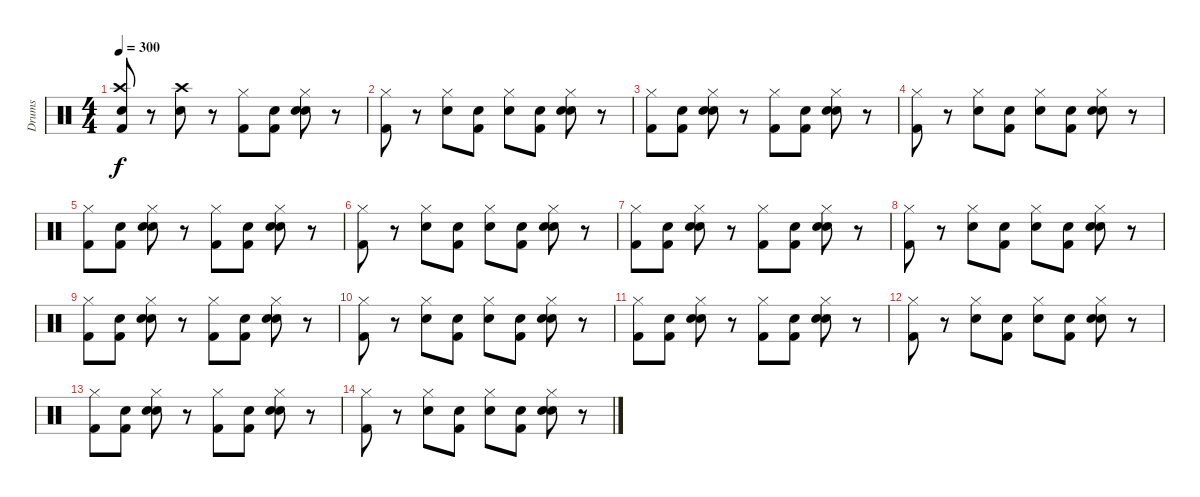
\track ("Drums" "Drums") {instrument percussion}
\staff {score}
\articulation defaults
\ts (4 4)
\tempo 300
\clef neutral
\ks c
("Snare (hit)" "Crash high (hit)" "Kick (hit) 2").8{dy f} r.8 ("Crash high (hit)" "Electric Snare (hit)").8 r.8 ("Hi-Hat (closed)" "Kick (hit) 2").8 ("Snare (hit)" "Kick (hit) 2").8 ("Snare (hit)" "Hi-Hat (closed)" "Electric Snare (hit)").8 r.8 |
("Kick (hit) 2" "Hi-Hat (closed)").8 r.8 ("Electric Snare (hit)" "Hi-Hat (closed)").8 ("Snare (hit)" "Kick (hit) 2").8 ("Snare (hit)" "Hi-Hat (closed)").8 ("Snare (hit)" "Kick (hit) 2").8 ("Snare (hit)" "Electric Snare (hit)" "Hi-Hat (closed)").8 r.8 |
("Hi-Hat (closed)" "Kick (hit) 2").8 ("Snare (hit)" "Kick (hit) 2").8 ("Snare (hit)" "Hi-Hat (closed)" "Electric Snare (hit)").8 r.8 ("Hi-Hat (closed)" "Kick (hit) 2").8 ("Snare (hit)" "Kick (hit) 2").8 ("Snare (hit)" "Hi-Hat (closed)" "Electric Snare (hit)").8 r.8 |
("Kick (hit) 2" "Hi-Hat (closed)").8 r.8 ("Electric Snare (hit)" "Hi-Hat (closed)").8 ("Snare (hit)" "Kick (hit) 2").8 ("Snare (hit)" "Hi-Hat (closed)").8 ("Snare (hit)" "Kick (hit) 2").8 ("Snare (hit)" "Electric Snare (hit)" "Hi-Hat (closed)").8 r.8 |
("Hi-Hat (closed)" "Kick (hit) 2").8 ("Snare (hit)" "Kick (hit) 2").8 ("Snare (hit)" "Hi-Hat (closed)" "Electric Snare (hit)").8 r.8 ("Hi-Hat (closed)" "Kick (hit) 2").8 ("Snare (hit)" "Kick (hit) 2").8 ("Snare (hit)" "Hi-Hat (closed)" "Electric Snare (hit)").8 r.8 |
("Kick (hit) 2" "Hi-Hat (closed)").8 r.8 ("Electric Snare (hit)" "Hi-Hat (closed)").8 ("Snare (hit)" "Kick (hit) 2").8 ("Snare (hit)" "Hi-Hat (closed)").8 ("Snare (hit)" "Kick (hit) 2").8 ("Snare (hit)" "Electric Snare (hit)" "Hi-Hat (closed)").8 r.8 |
("Hi-Hat (closed)" "Kick (hit) 2").8 ("Snare (hit)" "Kick (hit) 2").8 ("Snare (hit)" "Hi-Hat (closed)" "Electric Snare (hit)").8 r.8 ("Hi-Hat (closed)" "Kick (hit) 2").8 ("Snare (hit)" "Kick (hit) 2").8 ("Snare (hit)" "Hi-Hat (closed)" "Electric Snare (hit)").8 r.8 |
("Kick (hit) 2" "Hi-Hat (closed)").8 r.8 ("Electric Snare (hit)" "Hi-Hat (closed)").8 ("Snare (hit)" "Kick (hit) 2").8 ("Snare (hit)" "Hi-Hat (closed)").8 ("Snare (hit)" "Kick (hit) 2").8 ("Snare (hit)" "Electric Snare (hit)" "Hi-Hat (closed)").8 r.8 |
("Hi-Hat (closed)" "Kick (hit) 2").8 ("Snare (hit)" "Kick (hit) 2").8 ("Snare (hit)" "Hi-Hat (closed)" "Electric Snare (hit)").8 r.8 ("Hi-Hat (closed)" "Kick (hit) 2").8 ("Snare (hit)" "Kick (hit) 2").8 ("Snare (hit)" "Hi-Hat (closed)" "Electric Snare (hit)").8 r.8 |
("Kick (hit) 2" "Hi-Hat (closed)").8 r.8 ("Electric Snare (hit)" "Hi-Hat (closed)").8 ("Snare (hit)" "Kick (hit) 2").8 ("Snare (hit)" "Hi-Hat (closed)").8 ("Snare (hit)" "Kick (hit) 2").8 ("Snare (hit)" "Electric Snare (hit)" "Hi-Hat (closed)").8 r.8 |
("Hi-Hat (closed)" "Kick (hit) 2").8 ("Snare (hit)" "Kick (hit) 2").8 ("Snare (hit)" "Hi-Hat (closed)" "Electric Snare (hit)").8 r.8 ("Hi-Hat (closed)" "Kick (hit) 2").8 ("Snare (hit)" "Kick (hit) 2").8 ("Snare (hit)" "Hi-Hat (closed)" "Electric Snare (hit)").8 r.8 |
("Kick (hit) 2" "Hi-Hat (closed)").8 r.8 ("Electric Snare (hit)" "Hi-Hat (closed)").8 ("Snare (hit)" "Kick (hit) 2").8 ("Snare (hit)" "Hi-Hat (closed)").8 ("Snare (hit)" "Kick (hit) 2").8 ("Snare (hit)" "Electric Snare (hit)" "Hi-Hat (closed)").8 r.8 |
("Hi-Hat (closed)" "Kick (hit) 2").8 ("Snare (hit)" "Kick (hit) 2").8 ("Snare (hit)" "Hi-Hat (closed)" "Electric Snare (hit)").8 r.8 ("Hi-Hat (closed)" "Kick (hit) 2").8 ("Snare (hit)" "Kick (hit) 2").8 ("Snare (hit)" "Hi-Hat (closed)" "Electric Snare (hit)").8 r.8 |
("Kick (hit) 2" "Hi-Hat (closed)").8 r.8 ("Electric Snare (hit)" "Hi-Hat (closed)").8 ("Snare (hit)" "Kick (hit) 2").8 ("Snare (hit)" "Hi-Hat (closed)").8 ("Snare (hit)" "Kick (hit) 2").8 ("Snare (hit)" "Electric Snare (hit)" "Hi-Hat (closed)").8 r.8
